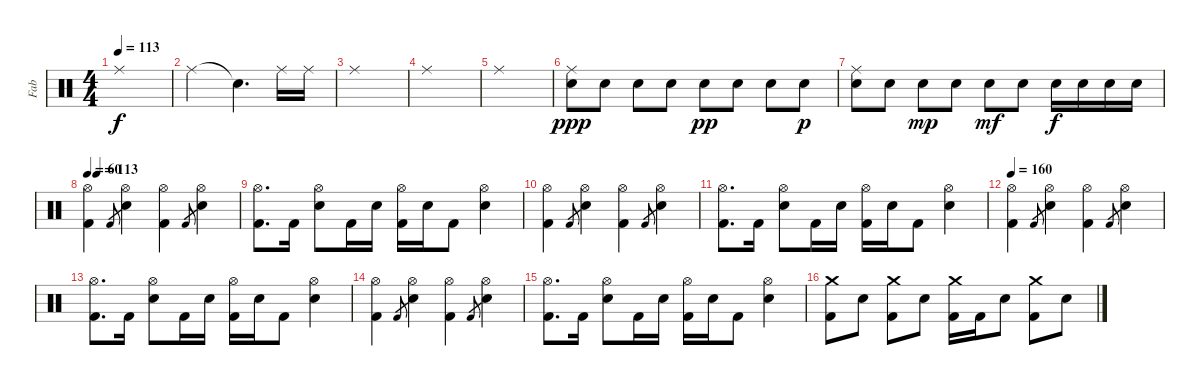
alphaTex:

\track ("Fab" "Fab") {instrument percussion}
\staff {score}
\articulation defaults
\ts (4 4)
\tempo 113
\clef neutral
\ks c "Ride (middle)".1{dy f}
|
"Ride (middle)".2 "Snare (hit)"{t}.4{d} "Ride (middle)".16 "Ride (middle)".16 |
"Ride (middle)".1 |
"Ride (middle)".1 |
"Ride (middle)".1 |
("Ride (middle)" "Electric Snare (hit)").8{dy ppp} "Electric Snare (hit)".8 "Electric Snare (hit)".8 "Electric Snare (hit)".8 "Electric Snare (hit)".8{dy pp} "Electric Snare (hit)".8 "Electric Snare (hit)".8 "Electric Snare (hit)".8{dy p} |
("Ride (middle)" "Electric Snare (hit)").8 "Electric Snare (hit)".8 "Electric Snare (hit)".8{dy mp} "Electric Snare (hit)".8 "Electric Snare (hit)".8{dy mf} "Electric Snare (hit)".8 "Electric Snare (hit)".16{dy f} "Electric Snare (hit)".16 "Electric Snare (hit)".16 "Electric Snare (hit)".16 |
\tempo 60
\tempo (113 0.0625)
("Hi-Hat (open)" "Kick (hit) 2").4 "Kick (hit) 2".8{gr} ("Hi-Hat (open)" "Electric Snare (hit)").4 ("Hi-Hat (open)" "Kick (hit) 2").4 "Kick (hit) 2".8{gr} ("Hi-Hat (open)" "Electric Snare (hit)").4 |
("Hi-Hat (open)" "Kick (hit) 2").8{d} "Kick (hit) 2".16 ("Hi-Hat (open)" "Electric Snare (hit)").8 "Kick (hit) 2".16 "Electric Snare (hit)".16 ("Hi-Hat (open)" "Kick (hit) 2").16 "Electric Snare (hit)".16 "Kick (hit) 2".8 ("Hi-Hat (open)" "Electric Snare (hit)").4 |
("Hi-Hat (open)" "Kick (hit) 2").4 "Kick (hit) 2".8{gr} ("Hi-Hat (open)" "Electric Snare (hit)").4 ("Hi-Hat (open)" "Kick (hit) 2").4 "Kick (hit) 2".8{gr} ("Hi-Hat (open)" "Electric Snare (hit)").4 |
("Hi-Hat (open)" "Kick (hit) 2").8{d} "Kick (hit) 2".16 ("Hi-Hat (open)" "Electric Snare (hit)").8 "Kick (hit) 2".16 "Electric Snare (hit)".16 ("Hi-Hat (open)" "Kick (hit) 2").16 "Electric Snare (hit)".16 "Kick (hit) 2".8 ("Hi-Hat (open)" "Electric Snare (hit)").4 |
\tempo 160
("Hi-Hat (open)" "Kick (hit) 2").4 "Kick (hit) 2".8{gr} ("Hi-Hat (open)" "Electric Snare (hit)").4 ("Hi-Hat (open)" "Kick (hit) 2").4 "Kick (hit) 2".8{gr} ("Hi-Hat (open)" "Electric Snare (hit)").4 |
("Hi-Hat (open)" "Kick (hit) 2").8{d} "Kick (hit) 2".16 ("Hi-Hat (open)" "Electric Snare (hit)").8 "Kick (hit) 2".16 "Electric Snare (hit)".16 ("Hi-Hat (open)" "Kick (hit) 2").16 "Electric Snare (hit)".16 "Kick (hit) 2".8 ("Hi-Hat (open)" "Electric Snare (hit)").4 |
("Hi-Hat (open)" "Kick (hit) 2").4 "Kick (hit) 2".8{gr} ("Hi-Hat (open)" "Electric Snare (hit)").4 ("Hi-Hat (open)" "Kick (hit) 2").4 "Kick (hit) 2".8{gr} ("Hi-Hat (open)" "Electric Snare (hit)").4 |
("Hi-Hat (open)" "Kick (hit) 2").8{d} "Kick (hit) 2".16 ("Hi-Hat (open)" "Electric Snare (hit)").8 "Kick (hit) 2".16 "Electric Snare (hit)".16 ("Hi-Hat (open)" "Kick (hit) 2").16 "Electric Snare (hit)".16 "Kick (hit) 2".8 ("Hi-Hat (open)" "Electric Snare (hit)").4 |
("Crash medium (hit)" "Kick (hit) 2").8 "Electric Snare (hit)".8 ("Crash medium (hit)" "Kick (hit) 2").8 "Electric Snare (hit)".8 ("Crash medium (hit)" "Kick (hit) 2").16 "Kick (hit) 2".16 "Electric Snare (hit)".8 ("Crash medium (hit)" "Kick (hit) 2").8 "Electric Snare (hit)".8
